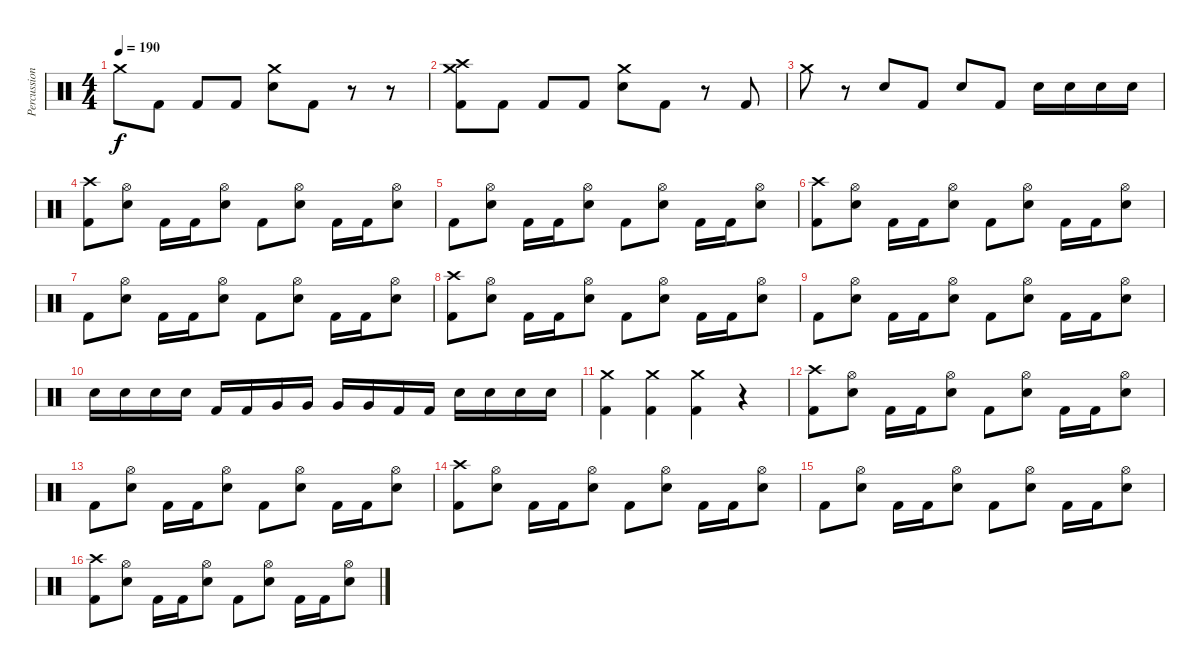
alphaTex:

\track ("Percussion" "Percussion") {instrument percussion}
\staff {score}
\articulation defaults
\ts (4 4)
\tempo 190
\clef neutral
\ks c "Crash medium (hit)".8{dy f} "Kick (hit) 2".8 "Kick (hit) 2".8 "Kick (hit) 2".8
("Crash medium (hit)" "Snare (hit) 2").8 "Kick (hit) 2".8 r.8 r.8 |
("Crash medium (hit)" "Crash high (hit)" "Kick (hit) 2").8 "Kick (hit) 2".8 "Kick (hit) 2".8 "Kick (hit) 2".8 ("Crash medium (hit)" "Snare (hit) 2").8 "Kick (hit) 2".8 r.8 "Kick (hit) 2".8 |
"Crash medium (hit)".8 r.8 "Snare (hit) 2".8 "Kick (hit) 2".8 "Snare (hit) 2".8 "Kick (hit) 2".8 "Snare (hit) 2".16 "Snare (hit) 2".16 "Snare (hit) 2".16 "Snare (hit) 2".16 |
("Crash high (hit)" "Kick (hit) 2").8 ("Hi-Hat (open)" "Snare (hit) 2").8 "Kick (hit) 2".16 "Kick (hit) 2".16 ("Hi-Hat (open)" "Snare (hit) 2").8 "Kick (hit) 2".8 ("Hi-Hat (open)" "Snare (hit) 2").8 "Kick (hit) 2".16 "Kick (hit) 2".16 ("Hi-Hat (open)" "Snare (hit) 2").8 |
"Kick (hit) 2".8 ("Hi-Hat (open)" "Snare (hit) 2").8 "Kick (hit) 2".16 "Kick (hit) 2".16 ("Hi-Hat (open)" "Snare (hit) 2").8 "Kick (hit) 2".8 ("Hi-Hat (open)" "Snare (hit) 2").8 "Kick (hit) 2".16 "Kick (hit) 2".16 ("Hi-Hat (open)" "Snare (hit) 2").8 |
("Crash high (hit)" "Kick (hit) 2").8 ("Hi-Hat (open)" "Snare (hit) 2").8 "Kick (hit) 2".16 "Kick (hit) 2".16 ("Hi-Hat (open)" "Snare (hit) 2").8 "Kick (hit) 2".8 ("Hi-Hat (open)" "Snare (hit) 2").8 "Kick (hit) 2".16 "Kick (hit) 2".16 ("Hi-Hat (open)" "Snare (hit) 2").8 |
"Kick (hit) 2".8 ("Hi-Hat (open)" "Snare (hit) 2").8 "Kick (hit) 2".16 "Kick (hit) 2".16 ("Hi-Hat (open)" "Snare (hit) 2").8 "Kick (hit) 2".8 ("Hi-Hat (open)" "Snare (hit) 2").8 "Kick (hit) 2".16 "Kick (hit) 2".16 ("Hi-Hat (open)" "Snare (hit) 2").8 |
("Crash high (hit)" "Kick (hit) 2").8 ("Hi-Hat (open)" "Snare (hit) 2").8 "Kick (hit) 2".16 "Kick (hit) 2".16 ("Hi-Hat (open)" "Snare (hit) 2").8 "Kick (hit) 2".8 ("Hi-Hat (open)" "Snare (hit) 2").8 "Kick (hit) 2".16 "Kick (hit) 2".16 ("Hi-Hat (open)" "Snare (hit) 2").8 |
"Kick (hit) 2".8 ("Hi-Hat (open)" "Snare (hit) 2").8 "Kick (hit) 2".16 "Kick (hit) 2".16 ("Hi-Hat (open)" "Snare (hit) 2").8 "Kick (hit) 2".8 ("Hi-Hat (open)" "Snare (hit) 2").8 "Kick (hit) 2".16 "Kick (hit) 2".16 ("Hi-Hat (open)" "Snare (hit) 2").8 |
"Snare (hit) 2".16 "Snare (hit) 2".16 "Snare (hit) 2".16 "Snare (hit) 2".16 "Kick (hit) 2".16 "Kick (hit) 2".16 "Very Low Tom (hit)".16 "Very Low Tom (hit)".16 "Very Low Tom (hit)".16 "Very Low Tom (hit)".16 "Kick (hit) 2".16 "Kick (hit) 2".16 "Snare (hit) 2".16 "Snare (hit) 2".16 "Snare (hit) 2".16 "Snare (hit) 2".16 |
("Crash medium (hit)" "Kick (hit) 2").4 ("Crash medium (hit)" "Kick (hit) 2").4 ("Crash medium (hit)" "Kick (hit) 2").4 r.4 |
("Crash high (hit)" "Kick (hit) 2").8 ("Hi-Hat (open)" "Snare (hit) 2").8 "Kick (hit) 2".16 "Kick (hit) 2".16 ("Hi-Hat (open)" "Snare (hit) 2").8 "Kick (hit) 2".8 ("Hi-Hat (open)" "Snare (hit) 2").8 "Kick (hit) 2".16 "Kick (hit) 2".16 ("Hi-Hat (open)" "Snare (hit) 2").8 |
"Kick (hit) 2".8 ("Hi-Hat (open)" "Snare (hit) 2").8 "Kick (hit) 2".16 "Kick (hit) 2".16 ("Hi-Hat (open)" "Snare (hit) 2").8 "Kick (hit) 2".8 ("Hi-Hat (open)" "Snare (hit) 2").8 "Kick (hit) 2".16 "Kick (hit) 2".16 ("Hi-Hat (open)" "Snare (hit) 2").8 |
("Crash high (hit)" "Kick (hit) 2").8 ("Hi-Hat (open)" "Snare (hit) 2").8 "Kick (hit) 2".16 "Kick (hit) 2".16 ("Hi-Hat (open)" "Snare (hit) 2").8 "Kick (hit) 2".8 ("Hi-Hat (open)" "Snare (hit) 2").8 "Kick (hit) 2".16 "Kick (hit) 2".16 ("Hi-Hat (open)" "Snare (hit) 2").8 |
"Kick (hit) 2".8 ("Hi-Hat (open)" "Snare (hit) 2").8 "Kick (hit) 2".16 "Kick (hit) 2".16 ("Hi-Hat (open)" "Snare (hit) 2").8 "Kick (hit) 2".8 ("Hi-Hat (open)" "Snare (hit) 2").8 "Kick (hit) 2".16 "Kick (hit) 2".16 ("Hi-Hat (open)" "Snare (hit) 2").8 |
("Crash high (hit)" "Kick (hit) 2").8 ("Hi-Hat (open)" "Snare (hit) 2").8 "Kick (hit) 2".16 "Kick (hit) 2".16 ("Hi-Hat (open)" "Snare (hit) 2").8 "Kick (hit) 2".8 ("Hi-Hat (open)" "Snare (hit) 2").8 "Kick (hit) 2".16 "Kick (hit) 2".16 ("Hi-Hat (open)" "Snare (hit) 2").8
